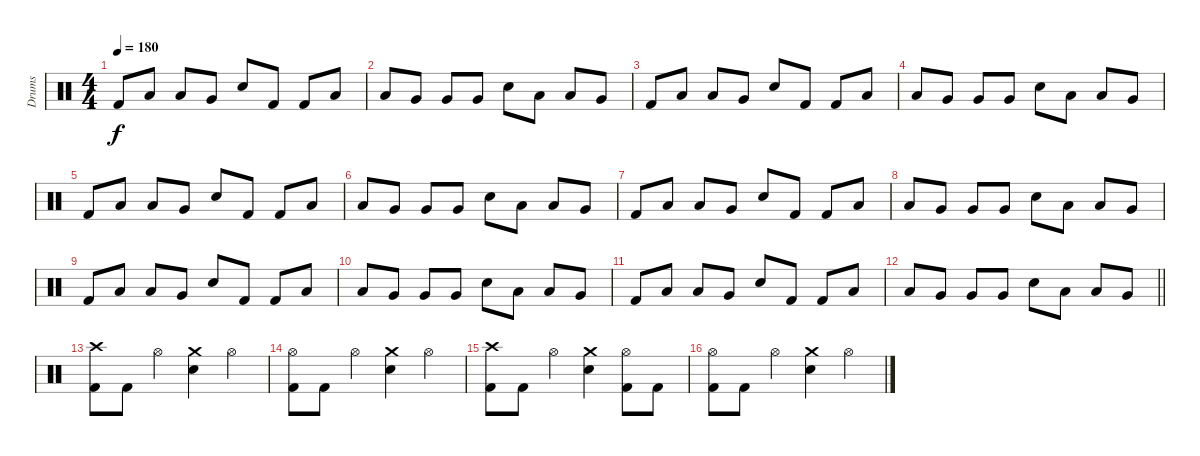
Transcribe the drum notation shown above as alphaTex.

\track ("Drums" "Drums") {instrument percussion}
\staff {score}
\articulation defaults
\ts (4 4)
\tempo 180
\clef neutral
\ks c "Kick (hit) 2".8{dy f} "Low Tom (hit)".8 "Low Tom (hit)".8 "Very Low Tom (hit)".8 "Electric Snare (hit)".8 "Kick (hit) 2".8 "Kick (hit) 2".8 "Low Tom (hit)".8
|
"Low Tom (hit)".8 "Very Low Tom (hit)".8 "Very Low Tom (hit)".8 "Very Low Tom (hit)".8 "Electric Snare (hit)".8 "Low Tom (hit)".8 "Low Tom (hit)".8 "Very Low Tom (hit)".8 |
"Kick (hit) 2".8 "Low Tom (hit)".8 "Low Tom (hit)".8 "Very Low Tom (hit)".8 "Electric Snare (hit)".8 "Kick (hit) 2".8 "Kick (hit) 2".8 "Low Tom (hit)".8 |
"Low Tom (hit)".8 "Very Low Tom (hit)".8 "Very Low Tom (hit)".8 "Very Low Tom (hit)".8 "Electric Snare (hit)".8 "Low Tom (hit)".8 "Low Tom (hit)".8 "Very Low Tom (hit)".8 |
"Kick (hit) 2".8 "Low Tom (hit)".8 "Low Tom (hit)".8 "Very Low Tom (hit)".8 "Electric Snare (hit)".8 "Kick (hit) 2".8 "Kick (hit) 2".8 "Low Tom (hit)".8 |
"Low Tom (hit)".8 "Very Low Tom (hit)".8 "Very Low Tom (hit)".8 "Very Low Tom (hit)".8 "Electric Snare (hit)".8 "Low Tom (hit)".8 "Low Tom (hit)".8 "Very Low Tom (hit)".8 |
"Kick (hit) 2".8 "Low Tom (hit)".8 "Low Tom (hit)".8 "Very Low Tom (hit)".8 "Electric Snare (hit)".8 "Kick (hit) 2".8 "Kick (hit) 2".8 "Low Tom (hit)".8 |
"Low Tom (hit)".8 "Very Low Tom (hit)".8 "Very Low Tom (hit)".8 "Very Low Tom (hit)".8 "Electric Snare (hit)".8 "Low Tom (hit)".8 "Low Tom (hit)".8 "Very Low Tom (hit)".8 |
"Kick (hit) 2".8 "Low Tom (hit)".8 "Low Tom (hit)".8 "Very Low Tom (hit)".8 "Electric Snare (hit)".8 "Kick (hit) 2".8 "Kick (hit) 2".8 "Low Tom (hit)".8 |
"Low Tom (hit)".8 "Very Low Tom (hit)".8 "Very Low Tom (hit)".8 "Very Low Tom (hit)".8 "Electric Snare (hit)".8 "Low Tom (hit)".8 "Low Tom (hit)".8 "Very Low Tom (hit)".8 |
"Kick (hit) 2".8 "Low Tom (hit)".8 "Low Tom (hit)".8 "Very Low Tom (hit)".8 "Electric Snare (hit)".8 "Kick (hit) 2".8 "Kick (hit) 2".8 "Low Tom (hit)".8 |
\barLineRight lightlight "Low Tom (hit)".8 "Very Low Tom (hit)".8 "Very Low Tom (hit)".8 "Very Low Tom (hit)".8 "Electric Snare (hit)".8 "Low Tom (hit)".8 "Low Tom (hit)".8 "Very Low Tom (hit)".8
|
\section ("" "")
("Crash high (hit)" "Kick (hit) 2").8 "Kick (hit) 2".8 "Hi-Hat (open)".4 ("Crash medium (hit)" "Electric Snare (hit)").4 "Hi-Hat (open)".4 |
("Hi-Hat (open)" "Kick (hit) 2").8 "Kick (hit) 2".8 "Hi-Hat (open)".4 ("Crash medium (hit)" "Electric Snare (hit)").4 "Hi-Hat (open)".4 |
("Crash high (hit)" "Kick (hit) 2").8 "Kick (hit) 2".8 "Hi-Hat (open)".4 ("Crash medium (hit)" "Electric Snare (hit)").4 ("Hi-Hat (open)" "Kick (hit) 2").8 "Kick (hit) 2".8 |
("Hi-Hat (open)" "Kick (hit) 2").8 "Kick (hit) 2".8 "Hi-Hat (open)".4 ("Crash medium (hit)" "Electric Snare (hit)").4 "Hi-Hat (open)".4
